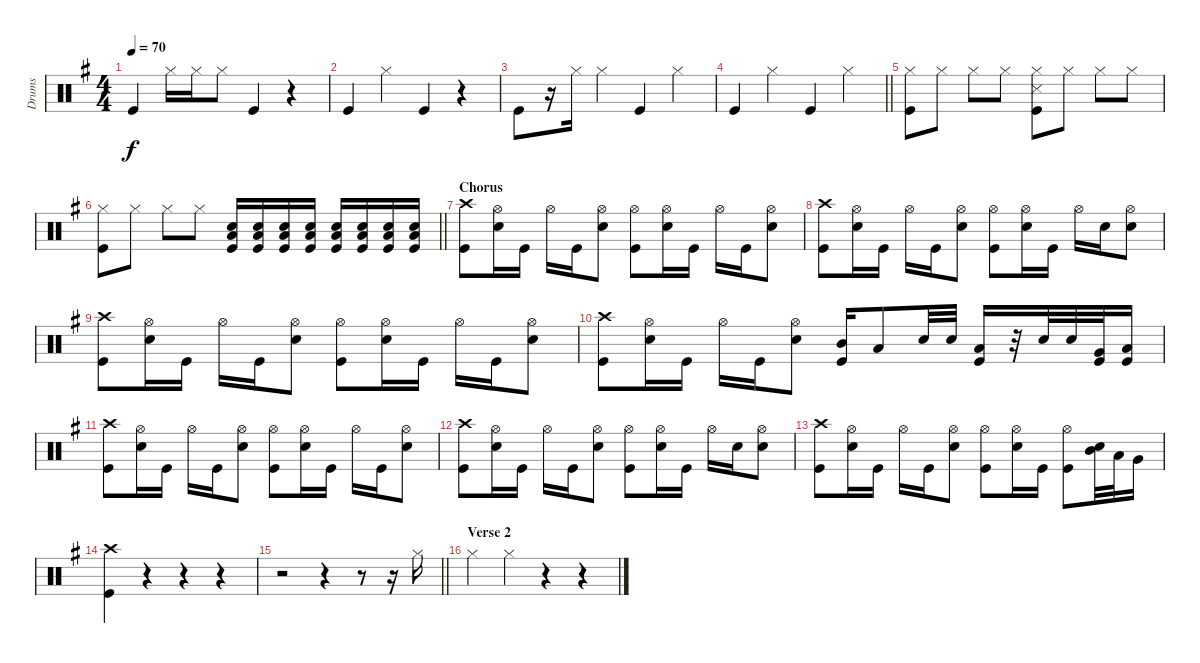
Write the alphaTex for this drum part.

\track ("Drums" "Drums") {instrument percussion}
\staff {score}
\articulation defaults
\ts (4 4)
\tempo 70
\clef neutral
\ks g "Kick (hit)".4{dy f} "Hi-Hat (closed)".16 "Hi-Hat (closed)".16 "Hi-Hat (closed)".8 "Kick (hit)".4
r.4 |
"Kick (hit)".4 "Hi-Hat (closed)".4 "Kick (hit)".4 r.4 |
"Kick (hit)".8 r.16 "Hi-Hat (closed)".16 "Hi-Hat (closed)".4 "Kick (hit)".4 "Hi-Hat (closed)".4 |
\barLineRight lightlight "Kick (hit)".4 "Hi-Hat (closed)".4 "Kick (hit)".4 "Hi-Hat (closed)".4
|
("Kick (hit)" "Hi-Hat (closed)").8 "Hi-Hat (closed)".8 "Hi-Hat (closed)".8 "Hi-Hat (closed)".8 ("Kick (hit)" "Hi-Hat (closed)" "Snare (side stick) 3").8 "Hi-Hat (closed)".8 "Hi-Hat (closed)".8 "Hi-Hat (closed)".8 |
\barLineRight lightlight
("Kick (hit)" "Hi-Hat (closed)").8 "Hi-Hat (closed)".8 "Hi-Hat (closed)".8 "Hi-Hat (closed)".8 ("Kick (hit)" "Snare (hit) 2" "Low Floor Tom (hit)").16{volume 1} ("Kick (hit)" "Snare (hit) 2" "Low Floor Tom (hit)").16{volume 13} ("Kick (hit)" "Snare (hit) 2" "Low Floor Tom (hit)").16 ("Kick (hit)" "Snare (hit) 2" "Low Floor Tom (hit)").16 ("Kick (hit)" "Snare (hit) 2" "Low Floor Tom (hit)").16 ("Kick (hit)" "Snare (hit) 2" "Low Floor Tom (hit)").16 ("Kick (hit)" "Snare (hit) 2" "Low Floor Tom (hit)").16 ("Kick (hit)" "Snare (hit) 2" "Low Floor Tom (hit)").16 |
\section ("" "Chorus")
("Kick (hit)" "Crash high (hit)").8 ("Snare (hit) 2" "Hi-Hat (open)").16 "Kick (hit)".16 "Hi-Hat (open)".16 "Kick (hit)".16 ("Snare (hit) 2" "Hi-Hat (open)").8 ("Kick (hit)" "Hi-Hat (open)").8 ("Snare (hit) 2" "Hi-Hat (open)").16 "Kick (hit)".16 "Hi-Hat (open)".16 "Kick (hit)".16 ("Snare (hit) 2" "Hi-Hat (open)").8 |
("Kick (hit)" "Crash high (hit)").8 ("Snare (hit) 2" "Hi-Hat (open)").16 "Kick (hit)".16 "Hi-Hat (open)".16 "Kick (hit)".16 ("Snare (hit) 2" "Hi-Hat (open)").8 ("Kick (hit)" "Hi-Hat (open)").8 ("Snare (hit) 2" "Hi-Hat (open)").16 "Kick (hit)".16 "Hi-Hat (open)".16 "Snare (hit) 2".16 ("Snare (hit) 2" "Hi-Hat (open)").8 |
("Kick (hit)" "Crash high (hit)").8 ("Snare (hit) 2" "Hi-Hat (open)").16 "Kick (hit)".16 "Hi-Hat (open)".16 "Kick (hit)".16 ("Snare (hit) 2" "Hi-Hat (open)").8 ("Kick (hit)" "Hi-Hat (open)").8 ("Snare (hit) 2" "Hi-Hat (open)").16 "Kick (hit)".16 "Hi-Hat (open)".16 "Kick (hit)".16 ("Snare (hit) 2" "Hi-Hat (open)").8 |
("Kick (hit)" "Crash high (hit)").8 ("Snare (hit) 2" "Hi-Hat (open)").16 "Kick (hit)".16 "Hi-Hat (open)".16 "Kick (hit)".16 ("Snare (hit) 2" "Hi-Hat (open)").8 ("Kick (hit)" "Mid Tom (hit)").16 "Low Tom (hit)".8 "Snare (hit) 2".32 "Snare (hit) 2".32 ("Kick (hit)" "Low Tom (hit)").16 r.32 "Snare (hit) 2".32 "Snare (hit) 2".32 ("Very Low Tom (hit)" "Kick (hit)").32 ("Low Floor Tom (hit)" "Kick (hit)").16 |
("Kick (hit)" "Crash high (hit)").8 ("Snare (hit) 2" "Hi-Hat (open)").16 "Kick (hit)".16 "Hi-Hat (open)".16 "Kick (hit)".16 ("Snare (hit) 2" "Hi-Hat (open)").8 ("Kick (hit)" "Hi-Hat (open)").8 ("Snare (hit) 2" "Hi-Hat (open)").16 "Kick (hit)".16 "Hi-Hat (open)".16 "Kick (hit)".16 ("Snare (hit) 2" "Hi-Hat (open)").8 |
("Kick (hit)" "Crash high (hit)").8 ("Snare (hit) 2" "Hi-Hat (open)").16 "Kick (hit)".16 "Hi-Hat (open)".16 "Kick (hit)".16 ("Snare (hit) 2" "Hi-Hat (open)").8 ("Kick (hit)" "Hi-Hat (open)").8 ("Snare (hit) 2" "Hi-Hat (open)").16 "Kick (hit)".16 "Hi-Hat (open)".16 "Snare (hit) 2".16 ("Snare (hit) 2" "Hi-Hat (open)").8 |
("Kick (hit)" "Crash high (hit)").8 ("Snare (hit) 2" "Hi-Hat (open)").16 "Kick (hit)".16 "Hi-Hat (open)".16 "Kick (hit)".16 ("Snare (hit) 2" "Hi-Hat (open)").8 ("Kick (hit)" "Hi-Hat (open)").8 ("Snare (hit) 2" "Hi-Hat (open)").16 "Kick (hit)".16 ("Hi-Hat (open)" "Kick (hit)").8 ("Mid Tom (hit)" "Snare (hit) 2").32 "Low Tom (hit)".32 "Very Low Tom (hit)".16 |
("Crash high (hit)" "Kick (hit)").4 r.4 r.4 r.4 |
\barLineRight lightlight
r.2 r.4 r.8 r.16 "Hi-Hat (closed)".16 |
\section ("" "Verse 2")
"Hi-Hat (closed)".4 "Hi-Hat (closed)".4 r.4 r.4
